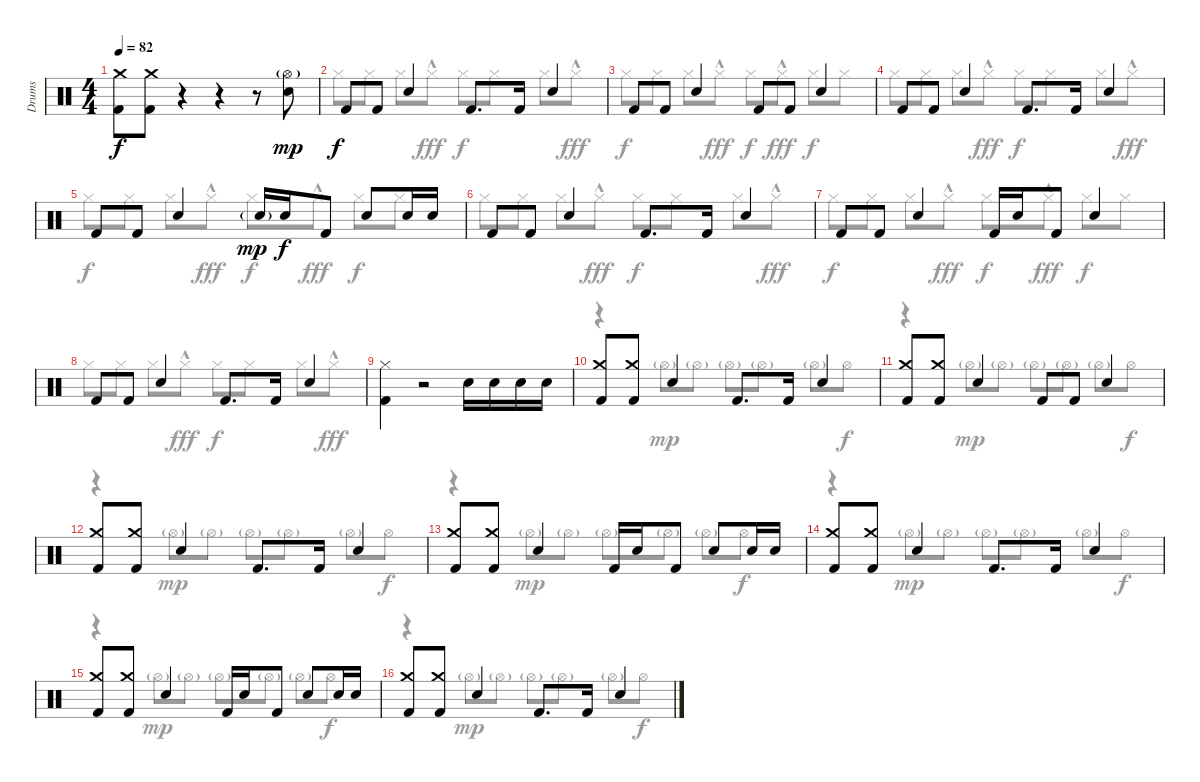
\track ("Drums" "Drums") {instrument percussion}
\staff {score}
\articulation defaults
\voice
\ts (4 4)
\tempo 82
\clef neutral
\ks c
("Crash medium (hit)" "Kick (hit) 2").8{dy f} ("Crash medium (hit)" "Kick (hit) 2").8 r.4 r.4 r.8 ("Hi-Hat (open)"{g} "Snare (hit) 2").8{dy mp} |
"Kick (hit) 2".8{dy f} "Kick (hit) 2".8 "Snare (hit) 2".4 "Kick (hit) 2".8{d} "Kick (hit) 2".16 "Snare (hit) 2".4 |
"Kick (hit) 2".8 "Kick (hit) 2".8 "Snare (hit) 2".4 "Kick (hit) 2".8 "Kick (hit) 2".8 "Snare (hit) 2".4 |
"Kick (hit) 2".8 "Kick (hit) 2".8 "Snare (hit) 2".4 "Kick (hit) 2".8{d} "Kick (hit) 2".16 "Snare (hit) 2".4 |
"Kick (hit) 2".8 "Kick (hit) 2".8 "Snare (hit) 2".4 "Snare (hit) 2"{g}.16{dy mp} "Snare (hit) 2".16{dy f} "Kick (hit) 2".8 "Snare (hit) 2".8 "Snare (hit) 2".16 "Snare (hit) 2".16 |
"Kick (hit) 2".8 "Kick (hit) 2".8 "Snare (hit) 2".4 "Kick (hit) 2".8{d} "Kick (hit) 2".16 "Snare (hit) 2".4 |
"Kick (hit) 2".8 "Kick (hit) 2".8 "Snare (hit) 2".4 "Kick (hit) 2".16 "Snare (hit) 2".16 "Kick (hit) 2".8 "Snare (hit) 2".4 |
"Kick (hit) 2".8 "Kick (hit) 2".8 "Snare (hit) 2".4 "Kick (hit) 2".8{d} "Kick (hit) 2".16 "Snare (hit) 2".4 |
("Hi-Hat (closed)" "Kick (hit) 2").4 r.2 "Snare (hit) 2".16 "Snare (hit) 2".16 "Snare (hit) 2".16 "Snare (hit) 2".16 |
("Crash medium (hit)" "Kick (hit) 2").8 ("Crash medium (hit)" "Kick (hit) 2").8 "Snare (hit) 2".4 "Kick (hit) 2".8{d} "Kick (hit) 2".16 "Snare (hit) 2".4 |
("Crash medium (hit)" "Kick (hit) 2").8 ("Crash medium (hit)" "Kick (hit) 2").8 "Snare (hit) 2".4 "Kick (hit) 2".8 "Kick (hit) 2".8 "Snare (hit) 2".4 |
("Crash medium (hit)" "Kick (hit) 2").8 ("Crash medium (hit)" "Kick (hit) 2").8 "Snare (hit) 2".4 "Kick (hit) 2".8{d} "Kick (hit) 2".16 "Snare (hit) 2".4 |
("Crash medium (hit)" "Kick (hit) 2").8 ("Crash medium (hit)" "Kick (hit) 2").8 "Snare (hit) 2".4 "Kick (hit) 2".16 "Snare (hit) 2".16 "Kick (hit) 2".8 "Snare (hit) 2".8 "Snare (hit) 2".16 "Snare (hit) 2".16 |
("Crash medium (hit)" "Kick (hit) 2").8 ("Crash medium (hit)" "Kick (hit) 2").8 "Snare (hit) 2".4 "Kick (hit) 2".8{d} "Kick (hit) 2".16 "Snare (hit) 2".4 |
("Crash medium (hit)" "Kick (hit) 2").8 ("Crash medium (hit)" "Kick (hit) 2").8 "Snare (hit) 2".4 "Kick (hit) 2".16 "Snare (hit) 2".16 "Kick (hit) 2".8 "Snare (hit) 2".8 "Snare (hit) 2".16 "Snare (hit) 2".16 |
("Crash medium (hit)" "Kick (hit) 2").8 ("Crash medium (hit)" "Kick (hit) 2").8 "Snare (hit) 2".4 "Kick (hit) 2".8{d} "Kick (hit) 2".16 "Snare (hit) 2".4
\voice
\clef neutral
\ottava regular
\simile none
\ks c
|
"Hi-Hat (closed)".8{dy f} "Hi-Hat (closed)".8 "Hi-Hat (closed)".8 "Hi-Hat (closed)"{hac}.8{dy fff} "Hi-Hat (closed)".8{dy f} "Hi-Hat (closed)".8 "Hi-Hat (closed)".8 "Hi-Hat (closed)"{hac}.8{dy fff} |
"Hi-Hat (closed)".8{dy f} "Hi-Hat (closed)".8 "Hi-Hat (closed)".8 "Hi-Hat (closed)"{hac}.8{dy fff} "Hi-Hat (closed)".8{dy f} "Hi-Hat (closed)"{hac}.8{dy fff} "Hi-Hat (closed)".8{dy f} "Hi-Hat (closed)".8 |
"Hi-Hat (closed)".8 "Hi-Hat (closed)".8 "Hi-Hat (closed)".8 "Hi-Hat (closed)"{hac}.8{dy fff} "Hi-Hat (closed)".8{dy f} "Hi-Hat (closed)".8 "Hi-Hat (closed)".8 "Hi-Hat (closed)"{hac}.8{dy fff} |
"Hi-Hat (closed)".8{dy f} "Hi-Hat (closed)".8 "Hi-Hat (closed)".8 "Hi-Hat (closed)"{hac}.8{dy fff} "Hi-Hat (closed)".8{dy f} "Hi-Hat (closed)"{hac}.8{dy fff} "Hi-Hat (closed)".8{dy f} "Hi-Hat (closed)".8 |
"Hi-Hat (closed)".8 "Hi-Hat (closed)".8 "Hi-Hat (closed)".8 "Hi-Hat (closed)"{hac}.8{dy fff} "Hi-Hat (closed)".8{dy f} "Hi-Hat (closed)".8 "Hi-Hat (closed)".8 "Hi-Hat (closed)"{hac}.8{dy fff} |
"Hi-Hat (closed)".8{dy f} "Hi-Hat (closed)".8 "Hi-Hat (closed)".8 "Hi-Hat (closed)"{hac}.8{dy fff} "Hi-Hat (closed)".8{dy f} "Hi-Hat (closed)"{hac}.8{dy fff} "Hi-Hat (closed)".8{dy f} "Hi-Hat (closed)".8 |
"Hi-Hat (closed)".8 "Hi-Hat (closed)".8 "Hi-Hat (closed)".8 "Hi-Hat (closed)"{hac}.8{dy fff} "Hi-Hat (closed)".8{dy f} "Hi-Hat (closed)".8 "Hi-Hat (closed)".8 "Hi-Hat (closed)"{hac}.8{dy fff} |
|
r.4 "Hi-Hat (open)"{g}.8{dy mp} "Hi-Hat (open)"{g}.8 "Hi-Hat (open)"{g}.8 "Hi-Hat (open)"{g}.8 "Hi-Hat (open)"{g}.8 "Hi-Hat (open)".8{dy f} |
r.4 "Hi-Hat (open)"{g}.8{dy mp} "Hi-Hat (open)"{g}.8 "Hi-Hat (open)"{g}.8 "Hi-Hat (open)"{g}.8 "Hi-Hat (open)"{g}.8 "Hi-Hat (open)".8{dy f} |
r.4 "Hi-Hat (open)"{g}.8{dy mp} "Hi-Hat (open)"{g}.8 "Hi-Hat (open)"{g}.8 "Hi-Hat (open)"{g}.8 "Hi-Hat (open)"{g}.8 "Hi-Hat (open)".8{dy f} |
r.4 "Hi-Hat (open)"{g}.8{dy mp} "Hi-Hat (open)"{g}.8 "Hi-Hat (open)"{g}.8 "Hi-Hat (open)"{g}.8 "Hi-Hat (open)"{g}.8 "Hi-Hat (open)".8{dy f} |
r.4 "Hi-Hat (open)"{g}.8{dy mp} "Hi-Hat (open)"{g}.8 "Hi-Hat (open)"{g}.8 "Hi-Hat (open)"{g}.8 "Hi-Hat (open)"{g}.8 "Hi-Hat (open)".8{dy f} |
r.4 "Hi-Hat (open)"{g}.8{dy mp} "Hi-Hat (open)"{g}.8 "Hi-Hat (open)"{g}.8 "Hi-Hat (open)"{g}.8 "Hi-Hat (open)"{g}.8 "Hi-Hat (open)".8{dy f} |
r.4 "Hi-Hat (open)"{g}.8{dy mp} "Hi-Hat (open)"{g}.8 "Hi-Hat (open)"{g}.8 "Hi-Hat (open)"{g}.8 "Hi-Hat (open)"{g}.8 "Hi-Hat (open)".8{dy f}
